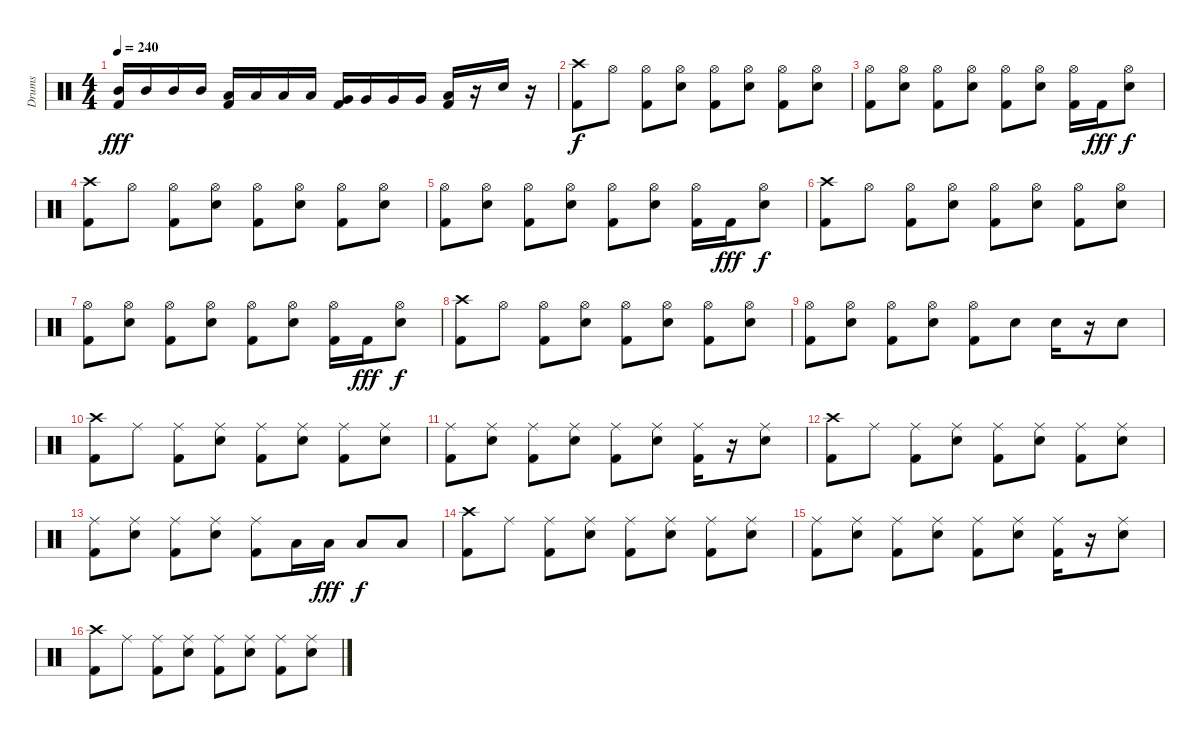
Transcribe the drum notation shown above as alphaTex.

\track ("Drums" "Drums") {instrument percussion}
\staff {score}
\articulation defaults
\ts (4 4)
\tempo 240
\clef neutral
\ks c
("Mid Tom (hit)" "Kick (hit) 2").16{dy fff} "Mid Tom (hit)".16 "Mid Tom (hit)".16 "Mid Tom (hit)".16 ("Low Tom (hit)" "Kick (hit) 2").16 "Low Tom (hit)".16 "Low Tom (hit)".16 "Low Tom (hit)".16 ("Very Low Tom (hit)" "Kick (hit) 2").16 "Very Low Tom (hit)".16 "Very Low Tom (hit)".16 "Very Low Tom (hit)".16 ("Low Floor Tom (hit)" "Kick (hit) 2").16 r.16 "Snare (hit) 2".16 r.16 |
("Crash high (hit)" "Kick (hit) 2").8{dy f} "Hi-Hat (open)".8 ("Hi-Hat (open)" "Kick (hit) 2").8 ("Hi-Hat (open)" "Snare (hit) 2").8 ("Hi-Hat (open)" "Kick (hit) 2").8 ("Hi-Hat (open)" "Snare (hit) 2").8 ("Hi-Hat (open)" "Kick (hit) 2").8 ("Hi-Hat (open)" "Snare (hit) 2").8 |
("Hi-Hat (open)" "Kick (hit) 2").8 ("Hi-Hat (open)" "Snare (hit) 2").8 ("Hi-Hat (open)" "Kick (hit) 2").8 ("Hi-Hat (open)" "Snare (hit) 2").8 ("Hi-Hat (open)" "Kick (hit) 2").8 ("Hi-Hat (open)" "Snare (hit) 2").8 ("Hi-Hat (open)" "Kick (hit) 2").16 "Kick (hit) 2".16{dy fff} ("Hi-Hat (open)" "Snare (hit) 2").8{dy f} |
("Crash high (hit)" "Kick (hit) 2").8 "Hi-Hat (open)".8 ("Hi-Hat (open)" "Kick (hit) 2").8 ("Hi-Hat (open)" "Snare (hit) 2").8 ("Hi-Hat (open)" "Kick (hit) 2").8 ("Hi-Hat (open)" "Snare (hit) 2").8 ("Hi-Hat (open)" "Kick (hit) 2").8 ("Hi-Hat (open)" "Snare (hit) 2").8 |
("Hi-Hat (open)" "Kick (hit) 2").8 ("Hi-Hat (open)" "Snare (hit) 2").8 ("Hi-Hat (open)" "Kick (hit) 2").8 ("Hi-Hat (open)" "Snare (hit) 2").8 ("Hi-Hat (open)" "Kick (hit) 2").8 ("Hi-Hat (open)" "Snare (hit) 2").8 ("Hi-Hat (open)" "Kick (hit) 2").16 "Kick (hit) 2".16{dy fff} ("Hi-Hat (open)" "Snare (hit) 2").8{dy f} |
("Crash high (hit)" "Kick (hit) 2").8 "Hi-Hat (open)".8 ("Hi-Hat (open)" "Kick (hit) 2").8 ("Hi-Hat (open)" "Snare (hit) 2").8 ("Hi-Hat (open)" "Kick (hit) 2").8 ("Hi-Hat (open)" "Snare (hit) 2").8 ("Hi-Hat (open)" "Kick (hit) 2").8 ("Hi-Hat (open)" "Snare (hit) 2").8 |
("Hi-Hat (open)" "Kick (hit) 2").8 ("Hi-Hat (open)" "Snare (hit) 2").8 ("Hi-Hat (open)" "Kick (hit) 2").8 ("Hi-Hat (open)" "Snare (hit) 2").8 ("Hi-Hat (open)" "Kick (hit) 2").8 ("Hi-Hat (open)" "Snare (hit) 2").8 ("Hi-Hat (open)" "Kick (hit) 2").16 "Kick (hit) 2".16{dy fff} ("Hi-Hat (open)" "Snare (hit) 2").8{dy f} |
("Crash high (hit)" "Kick (hit) 2").8 "Hi-Hat (open)".8 ("Hi-Hat (open)" "Kick (hit) 2").8 ("Hi-Hat (open)" "Snare (hit) 2").8 ("Hi-Hat (open)" "Kick (hit) 2").8 ("Hi-Hat (open)" "Snare (hit) 2").8 ("Hi-Hat (open)" "Kick (hit) 2").8 ("Hi-Hat (open)" "Snare (hit) 2").8 |
("Hi-Hat (open)" "Kick (hit) 2").8 ("Hi-Hat (open)" "Snare (hit) 2").8 ("Hi-Hat (open)" "Kick (hit) 2").8 ("Hi-Hat (open)" "Snare (hit) 2").8 ("Hi-Hat (open)" "Kick (hit) 2").8 "Snare (hit) 2".8 "Snare (hit) 2".16 r.16 "Snare (hit) 2".8 |
("Crash high (hit)" "Kick (hit) 2").8 "Ride (middle)".8 ("Ride (middle)" "Kick (hit) 2").8 ("Ride (middle)" "Snare (hit) 2").8 ("Ride (middle)" "Kick (hit) 2").8 ("Ride (middle)" "Snare (hit) 2").8 ("Ride (middle)" "Kick (hit) 2").8 ("Ride (middle)" "Snare (hit) 2").8 |
("Ride (middle)" "Kick (hit) 2").8 ("Ride (middle)" "Snare (hit) 2").8 ("Ride (middle)" "Kick (hit) 2").8 ("Ride (middle)" "Snare (hit) 2").8 ("Ride (middle)" "Kick (hit) 2").8 ("Ride (middle)" "Snare (hit) 2").8 ("Ride (middle)" "Kick (hit) 2").16 r.16 ("Ride (middle)" "Snare (hit) 2").8 |
("Crash high (hit)" "Kick (hit) 2").8 "Ride (middle)".8 ("Ride (middle)" "Kick (hit) 2").8 ("Ride (middle)" "Snare (hit) 2").8 ("Ride (middle)" "Kick (hit) 2").8 ("Ride (middle)" "Snare (hit) 2").8 ("Ride (middle)" "Kick (hit) 2").8 ("Ride (middle)" "Snare (hit) 2").8 |
("Ride (middle)" "Kick (hit) 2").8 ("Ride (middle)" "Snare (hit) 2").8 ("Ride (middle)" "Kick (hit) 2").8 ("Ride (middle)" "Snare (hit) 2").8 ("Ride (middle)" "Kick (hit) 2").8 "Low Floor Tom (hit)".16 "Low Floor Tom (hit)".16{dy fff} "Low Floor Tom (hit)".8{dy f} "Low Floor Tom (hit)".8 |
("Crash high (hit)" "Kick (hit) 2").8 "Ride (middle)".8 ("Ride (middle)" "Kick (hit) 2").8 ("Ride (middle)" "Snare (hit) 2").8 ("Ride (middle)" "Kick (hit) 2").8 ("Ride (middle)" "Snare (hit) 2").8 ("Ride (middle)" "Kick (hit) 2").8 ("Ride (middle)" "Snare (hit) 2").8 |
("Ride (middle)" "Kick (hit) 2").8 ("Ride (middle)" "Snare (hit) 2").8 ("Ride (middle)" "Kick (hit) 2").8 ("Ride (middle)" "Snare (hit) 2").8 ("Ride (middle)" "Kick (hit) 2").8 ("Ride (middle)" "Snare (hit) 2").8 ("Ride (middle)" "Kick (hit) 2").16 r.16 ("Ride (middle)" "Snare (hit) 2").8 |
("Crash high (hit)" "Kick (hit) 2").8 "Ride (middle)".8 ("Ride (middle)" "Kick (hit) 2").8 ("Ride (middle)" "Snare (hit) 2").8 ("Ride (middle)" "Kick (hit) 2").8 ("Ride (middle)" "Snare (hit) 2").8 ("Ride (middle)" "Kick (hit) 2").8 ("Ride (middle)" "Snare (hit) 2").8
